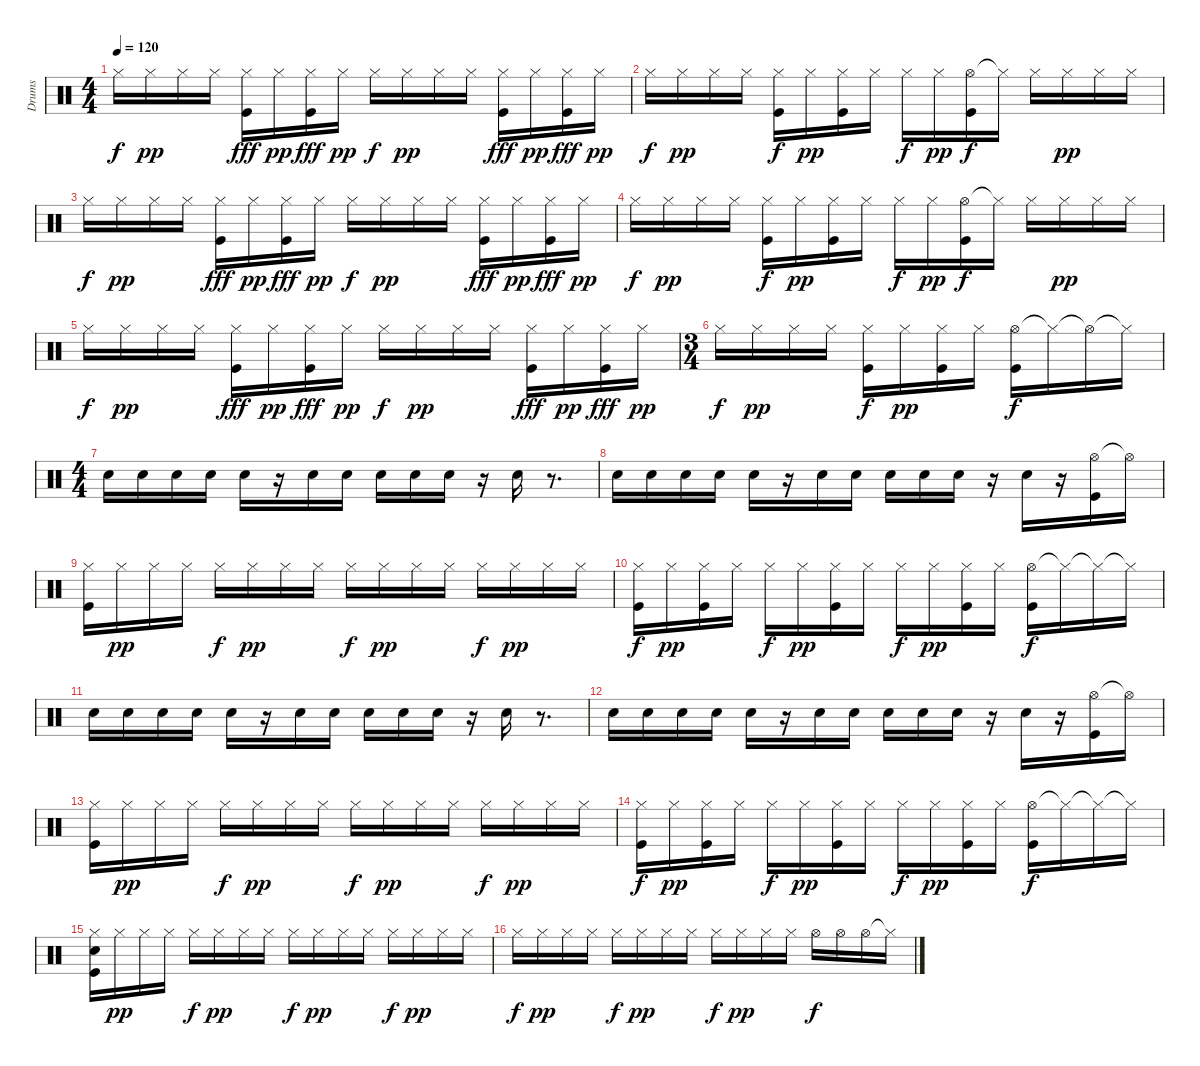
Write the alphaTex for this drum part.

\track ("Drums" "Drums") {instrument percussion}
\staff {score}
\articulation defaults
\ts (4 4)
\tempo 120
\clef neutral
\ks c "Hi-Hat (closed)".16{dy f} "Hi-Hat (closed)".16{dy pp} "Hi-Hat (closed)".16 "Hi-Hat (closed)".16
("Hi-Hat (closed)" "Kick (hit)").16{dy fff} "Hi-Hat (closed)".16{dy pp} ("Hi-Hat (closed)" "Kick (hit)").16{dy fff} "Hi-Hat (closed)".16{dy pp} "Hi-Hat (closed)".16{dy f} "Hi-Hat (closed)".16{dy pp} "Hi-Hat (closed)".16 "Hi-Hat (closed)".16 ("Hi-Hat (closed)" "Kick (hit)").16{dy fff} "Hi-Hat (closed)".16{dy pp} ("Hi-Hat (closed)" "Kick (hit)").16{dy fff} "Hi-Hat (closed)".16{dy pp} |
"Hi-Hat (closed)".16{dy f} "Hi-Hat (closed)".16{dy pp} "Hi-Hat (closed)".16 "Hi-Hat (closed)".16 ("Hi-Hat (closed)" "Kick (hit)").16{dy f} "Hi-Hat (closed)".16{dy pp} ("Hi-Hat (closed)" "Kick (hit)").16 "Hi-Hat (closed)".16 "Hi-Hat (closed)".16{dy f} "Hi-Hat (closed)".16{dy pp} ("Hi-Hat (open)" "Kick (hit)").16{dy f} "Hi-Hat (closed)"{t}.16 "Hi-Hat (closed)".16 "Hi-Hat (closed)".16{dy pp} "Hi-Hat (closed)".16 "Hi-Hat (closed)".16 |
"Hi-Hat (closed)".16{dy f} "Hi-Hat (closed)".16{dy pp} "Hi-Hat (closed)".16 "Hi-Hat (closed)".16 ("Hi-Hat (closed)" "Kick (hit)").16{dy fff} "Hi-Hat (closed)".16{dy pp} ("Hi-Hat (closed)" "Kick (hit)").16{dy fff} "Hi-Hat (closed)".16{dy pp} "Hi-Hat (closed)".16{dy f} "Hi-Hat (closed)".16{dy pp} "Hi-Hat (closed)".16 "Hi-Hat (closed)".16 ("Hi-Hat (closed)" "Kick (hit)").16{dy fff} "Hi-Hat (closed)".16{dy pp} ("Hi-Hat (closed)" "Kick (hit)").16{dy fff} "Hi-Hat (closed)".16{dy pp} |
"Hi-Hat (closed)".16{dy f} "Hi-Hat (closed)".16{dy pp} "Hi-Hat (closed)".16 "Hi-Hat (closed)".16 ("Hi-Hat (closed)" "Kick (hit)").16{dy f} "Hi-Hat (closed)".16{dy pp} ("Hi-Hat (closed)" "Kick (hit)").16 "Hi-Hat (closed)".16 "Hi-Hat (closed)".16{dy f} "Hi-Hat (closed)".16{dy pp} ("Hi-Hat (open)" "Kick (hit)").16{dy f} "Hi-Hat (closed)"{t}.16 "Hi-Hat (closed)".16 "Hi-Hat (closed)".16{dy pp} "Hi-Hat (closed)".16 "Hi-Hat (closed)".16 |
"Hi-Hat (closed)".16{dy f} "Hi-Hat (closed)".16{dy pp} "Hi-Hat (closed)".16 "Hi-Hat (closed)".16 ("Hi-Hat (closed)" "Kick (hit)").16{dy fff} "Hi-Hat (closed)".16{dy pp} ("Hi-Hat (closed)" "Kick (hit)").16{dy fff} "Hi-Hat (closed)".16{dy pp} "Hi-Hat (closed)".16{dy f} "Hi-Hat (closed)".16{dy pp} "Hi-Hat (closed)".16 "Hi-Hat (closed)".16 ("Hi-Hat (closed)" "Kick (hit)").16{dy fff} "Hi-Hat (closed)".16{dy pp} ("Hi-Hat (closed)" "Kick (hit)").16{dy fff} "Hi-Hat (closed)".16{dy pp} |
\ts (3 4)
"Hi-Hat (closed)".16{dy f} "Hi-Hat (closed)".16{dy pp} "Hi-Hat (closed)".16 "Hi-Hat (closed)".16 ("Hi-Hat (closed)" "Kick (hit)").16{dy f} "Hi-Hat (closed)".16{dy pp} ("Hi-Hat (closed)" "Kick (hit)").16 "Hi-Hat (closed)".16 ("Hi-Hat (open)" "Kick (hit)").16{dy f} "Hi-Hat (closed)"{t}.16 "Hi-Hat (open)"{t}.16 "Hi-Hat (closed)"{t}.16 |
\ts (4 4)
"Electric Snare (hit)".16 "Electric Snare (hit)".16 "Electric Snare (hit)".16 "Electric Snare (hit)".16 "Electric Snare (hit)".16 r.16 "Electric Snare (hit)".16 "Electric Snare (hit)".16 "Electric Snare (hit)".16 "Electric Snare (hit)".16 "Electric Snare (hit)".16 r.16 "Electric Snare (hit)".16 r.8{d} |
"Electric Snare (hit)".16 "Electric Snare (hit)".16 "Electric Snare (hit)".16 "Electric Snare (hit)".16 "Electric Snare (hit)".16 r.16 "Electric Snare (hit)".16 "Electric Snare (hit)".16 "Electric Snare (hit)".16 "Electric Snare (hit)".16 "Electric Snare (hit)".16 r.16 "Electric Snare (hit)".16 r.16 ("Hi-Hat (open)" "Kick (hit)").16 "Hi-Hat (open)"{t}.16 |
("Hi-Hat (closed)" "Kick (hit)").16 "Hi-Hat (closed)".16{dy pp} "Hi-Hat (closed)".16 "Hi-Hat (closed)".16 "Hi-Hat (closed)".16{dy f} "Hi-Hat (closed)".16{dy pp} "Hi-Hat (closed)".16 "Hi-Hat (closed)".16 "Hi-Hat (closed)".16{dy f} "Hi-Hat (closed)".16{dy pp} "Hi-Hat (closed)".16 "Hi-Hat (closed)".16 "Hi-Hat (closed)".16{dy f} "Hi-Hat (closed)".16{dy pp} "Hi-Hat (closed)".16 "Hi-Hat (closed)".16 |
("Hi-Hat (closed)" "Kick (hit)").16{dy f} "Hi-Hat (closed)".16{dy pp} ("Hi-Hat (closed)" "Kick (hit)").16 "Hi-Hat (closed)".16 "Hi-Hat (closed)".16{dy f} "Hi-Hat (closed)".16{dy pp} ("Hi-Hat (closed)" "Kick (hit)").16 "Hi-Hat (closed)".16 "Hi-Hat (closed)".16{dy f} "Hi-Hat (closed)".16{dy pp} ("Hi-Hat (closed)" "Kick (hit)").16 "Hi-Hat (closed)".16 ("Hi-Hat (open)" "Kick (hit)").16{dy f} "Hi-Hat (closed)"{t}.16 "Hi-Hat (closed)"{t}.16 "Hi-Hat (closed)"{t}.16 |
"Electric Snare (hit)".16 "Electric Snare (hit)".16 "Electric Snare (hit)".16 "Electric Snare (hit)".16 "Electric Snare (hit)".16 r.16 "Electric Snare (hit)".16 "Electric Snare (hit)".16 "Electric Snare (hit)".16 "Electric Snare (hit)".16 "Electric Snare (hit)".16 r.16 "Electric Snare (hit)".16 r.8{d} |
"Electric Snare (hit)".16 "Electric Snare (hit)".16 "Electric Snare (hit)".16 "Electric Snare (hit)".16 "Electric Snare (hit)".16 r.16 "Electric Snare (hit)".16 "Electric Snare (hit)".16 "Electric Snare (hit)".16 "Electric Snare (hit)".16 "Electric Snare (hit)".16 r.16 "Electric Snare (hit)".16 r.16 ("Hi-Hat (open)" "Kick (hit)").16 "Hi-Hat (open)"{t}.16 |
("Hi-Hat (closed)" "Kick (hit)").16 "Hi-Hat (closed)".16{dy pp} "Hi-Hat (closed)".16 "Hi-Hat (closed)".16 "Hi-Hat (closed)".16{dy f} "Hi-Hat (closed)".16{dy pp} "Hi-Hat (closed)".16 "Hi-Hat (closed)".16 "Hi-Hat (closed)".16{dy f} "Hi-Hat (closed)".16{dy pp} "Hi-Hat (closed)".16 "Hi-Hat (closed)".16 "Hi-Hat (closed)".16{dy f} "Hi-Hat (closed)".16{dy pp} "Hi-Hat (closed)".16 "Hi-Hat (closed)".16 |
("Hi-Hat (closed)" "Kick (hit)").16{dy f} "Hi-Hat (closed)".16{dy pp} ("Hi-Hat (closed)" "Kick (hit)").16 "Hi-Hat (closed)".16 "Hi-Hat (closed)".16{dy f} "Hi-Hat (closed)".16{dy pp} ("Hi-Hat (closed)" "Kick (hit)").16 "Hi-Hat (closed)".16 "Hi-Hat (closed)".16{dy f} "Hi-Hat (closed)".16{dy pp} ("Hi-Hat (closed)" "Kick (hit)").16 "Hi-Hat (closed)".16 ("Hi-Hat (open)" "Kick (hit)").16{dy f} "Hi-Hat (closed)"{t}.16 "Hi-Hat (closed)"{t}.16 "Hi-Hat (closed)"{t}.16 |
("Hi-Hat (closed)" "Electric Snare (hit)" "Kick (hit)").16 "Hi-Hat (closed)".16{dy pp} "Hi-Hat (closed)".16 "Hi-Hat (closed)".16 "Hi-Hat (closed)".16{dy f} "Hi-Hat (closed)".16{dy pp} "Hi-Hat (closed)".16 "Hi-Hat (closed)".16 "Hi-Hat (closed)".16{dy f} "Hi-Hat (closed)".16{dy pp} "Hi-Hat (closed)".16 "Hi-Hat (closed)".16 "Hi-Hat (closed)".16{dy f} "Hi-Hat (closed)".16{dy pp} "Hi-Hat (closed)".16 "Hi-Hat (closed)".16 |
"Hi-Hat (closed)".16{dy f} "Hi-Hat (closed)".16{dy pp} "Hi-Hat (closed)".16 "Hi-Hat (closed)".16 "Hi-Hat (closed)".16{dy f} "Hi-Hat (closed)".16{dy pp} "Hi-Hat (closed)".16 "Hi-Hat (closed)".16 "Hi-Hat (closed)".16{dy f} "Hi-Hat (closed)".16{dy pp} "Hi-Hat (closed)".16 "Hi-Hat (closed)".16 "Hi-Hat (open)".16{dy f} "Hi-Hat (open)".16 "Hi-Hat (open)".16 "Hi-Hat (closed)"{t}.16
